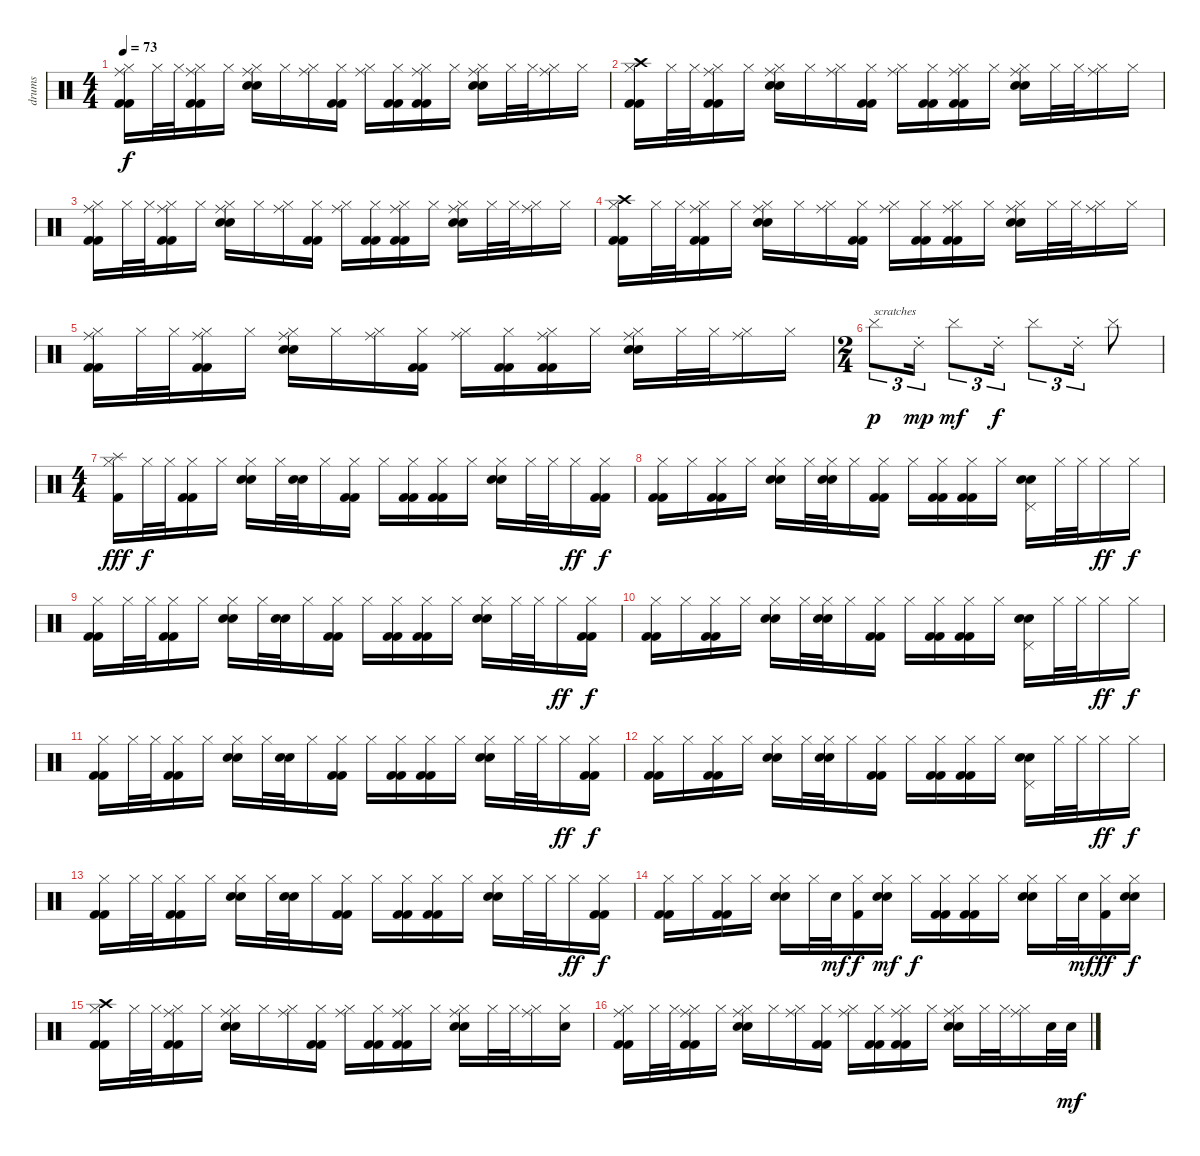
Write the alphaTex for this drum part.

\track ("drums" "drums") {instrument percussion}
\staff {score}
\articulation defaults
\ts (4 4)
\tempo 73
\clef neutral
\ks c
("Hi-Hat (closed)" "Ride (middle)" "Kick (hit) 2" "Kick (hit) 2").16{dy f} "Hi-Hat (closed)".32 "Hi-Hat (closed)".32 ("Hi-Hat (closed)" "Ride (middle)" "Kick (hit) 2" "Kick (hit) 2").16 "Hi-Hat (closed)".16 ("Hi-Hat (closed)" "Ride (middle)" "Electric Snare (hit)" "Electric Snare (hit)").16 "Hi-Hat (closed)".16 ("Hi-Hat (closed)" "Ride (middle)").16 ("Hi-Hat (closed)" "Kick (hit) 2" "Kick (hit) 2").16 ("Hi-Hat (closed)" "Ride (middle)").16 ("Hi-Hat (closed)" "Kick (hit) 2" "Kick (hit) 2").16 ("Hi-Hat (closed)" "Ride (middle)" "Kick (hit) 2" "Kick (hit) 2").16 "Hi-Hat (closed)".16 ("Hi-Hat (closed)" "Ride (middle)" "Electric Snare (hit)" "Electric Snare (hit)").16 "Hi-Hat (closed)".32 "Hi-Hat (closed)".32 ("Hi-Hat (closed)" "Ride (middle)").16 "Hi-Hat (closed)".16 |
("Hi-Hat (closed)" "Crash high (hit)" "Kick (hit) 2" "Kick (hit) 2").16 "Hi-Hat (closed)".32 "Hi-Hat (closed)".32 ("Hi-Hat (closed)" "Ride (middle)" "Kick (hit) 2" "Kick (hit) 2").16 "Hi-Hat (closed)".16 ("Hi-Hat (closed)" "Ride (middle)" "Electric Snare (hit)" "Electric Snare (hit)").16 "Hi-Hat (closed)".16 ("Hi-Hat (closed)" "Ride (middle)").16 ("Hi-Hat (closed)" "Kick (hit) 2" "Kick (hit) 2").16 ("Hi-Hat (closed)" "Ride (middle)").16 ("Hi-Hat (closed)" "Kick (hit) 2" "Kick (hit) 2").16 ("Hi-Hat (closed)" "Ride (middle)" "Kick (hit) 2" "Kick (hit) 2").16 "Hi-Hat (closed)".16 ("Hi-Hat (closed)" "Ride (middle)" "Electric Snare (hit)" "Electric Snare (hit)").16 "Hi-Hat (closed)".32 "Hi-Hat (closed)".32 ("Hi-Hat (closed)" "Ride (middle)").16 "Hi-Hat (closed)".16 |
("Hi-Hat (closed)" "Ride (middle)" "Kick (hit) 2" "Kick (hit) 2").16 "Hi-Hat (closed)".32 "Hi-Hat (closed)".32 ("Hi-Hat (closed)" "Ride (middle)" "Kick (hit) 2" "Kick (hit) 2").16 "Hi-Hat (closed)".16 ("Hi-Hat (closed)" "Ride (middle)" "Electric Snare (hit)" "Electric Snare (hit)").16 "Hi-Hat (closed)".16 ("Hi-Hat (closed)" "Ride (middle)").16 ("Hi-Hat (closed)" "Kick (hit) 2" "Kick (hit) 2").16 ("Hi-Hat (closed)" "Ride (middle)").16 ("Hi-Hat (closed)" "Kick (hit) 2" "Kick (hit) 2").16 ("Hi-Hat (closed)" "Ride (middle)" "Kick (hit) 2" "Kick (hit) 2").16 "Hi-Hat (closed)".16 ("Hi-Hat (closed)" "Ride (middle)" "Electric Snare (hit)" "Electric Snare (hit)").16 "Hi-Hat (closed)".32 "Hi-Hat (closed)".32 ("Hi-Hat (closed)" "Ride (middle)").16 "Hi-Hat (closed)".16 |
("Hi-Hat (closed)" "Crash high (hit)" "Kick (hit) 2" "Kick (hit) 2").16 "Hi-Hat (closed)".32 "Hi-Hat (closed)".32 ("Hi-Hat (closed)" "Ride (middle)" "Kick (hit) 2" "Kick (hit) 2").16 "Hi-Hat (closed)".16 ("Hi-Hat (closed)" "Ride (middle)" "Electric Snare (hit)" "Electric Snare (hit)").16 "Hi-Hat (closed)".16 ("Hi-Hat (closed)" "Ride (middle)").16 ("Hi-Hat (closed)" "Kick (hit) 2" "Kick (hit) 2").16 ("Hi-Hat (closed)" "Ride (middle)").16 ("Hi-Hat (closed)" "Kick (hit) 2" "Kick (hit) 2").16 ("Hi-Hat (closed)" "Ride (middle)" "Kick (hit) 2" "Kick (hit) 2").16 "Hi-Hat (closed)".16 ("Hi-Hat (closed)" "Ride (middle)" "Electric Snare (hit)" "Electric Snare (hit)").16 "Hi-Hat (closed)".32 "Hi-Hat (closed)".32 ("Hi-Hat (closed)" "Ride (middle)").16 "Hi-Hat (closed)".16 |
("Hi-Hat (closed)" "Ride (middle)" "Kick (hit) 2" "Kick (hit) 2").16 "Hi-Hat (closed)".32 "Hi-Hat (closed)".32 ("Hi-Hat (closed)" "Ride (middle)" "Kick (hit) 2" "Kick (hit) 2").16 "Hi-Hat (closed)".16 ("Hi-Hat (closed)" "Ride (middle)" "Electric Snare (hit)" "Electric Snare (hit)").16 "Hi-Hat (closed)".16 ("Hi-Hat (closed)" "Ride (middle)").16 ("Hi-Hat (closed)" "Kick (hit) 2" "Kick (hit) 2").16 ("Hi-Hat (closed)" "Ride (middle)").16 ("Hi-Hat (closed)" "Kick (hit) 2" "Kick (hit) 2").16 ("Hi-Hat (closed)" "Ride (middle)" "Kick (hit) 2" "Kick (hit) 2").16 "Hi-Hat (closed)".16 ("Hi-Hat (closed)" "Ride (middle)" "Electric Snare (hit)" "Electric Snare (hit)").16 "Hi-Hat (closed)".32 "Hi-Hat (closed)".32 ("Hi-Hat (closed)" "Ride (middle)").16 "Hi-Hat (closed)".16 |
\ts (2 4)
"Cymbal (hit)".8{tu (3 2) txt "scratches" dy p} "Ride (choke) 2".16{tu (3 2) dy mp} "Cymbal (hit)".8{tu (3 2) dy mf} "Ride (choke) 2".16{tu (3 2) dy f} "Cymbal (hit)".8{tu (3 2)} "Ride (choke) 2".16{tu (3 2)} "Cymbal (hit)".8 |
\ts (4 4)
("Hi-Hat (closed)" "Kick (hit) 2" "Splash (hit)").16{dy fff} "Hi-Hat (closed)".32{dy f} "Hi-Hat (closed)".32 ("Hi-Hat (closed)" "Kick (hit) 2" "Kick (hit) 2").16 "Hi-Hat (closed)".16 ("Hi-Hat (closed)" "Electric Snare (hit)" "Electric Snare (hit)").16 "Hi-Hat (closed)".32 ("Electric Snare (hit)" "Electric Snare (hit)").32 "Hi-Hat (closed)".16 ("Hi-Hat (closed)" "Kick (hit) 2" "Kick (hit) 2").16 "Hi-Hat (closed)".16 ("Hi-Hat (closed)" "Kick (hit) 2" "Kick (hit) 2").16 ("Hi-Hat (closed)" "Kick (hit) 2" "Kick (hit) 2").16 "Hi-Hat (closed)".16 ("Hi-Hat (closed)" "Electric Snare (hit)" "Electric Snare (hit)").16 "Hi-Hat (closed)".32 "Hi-Hat (closed)".32 "Hi-Hat (closed)".16{dy ff} ("Hi-Hat (closed)" "Kick (hit) 2" "Kick (hit) 2").16{dy f} |
("Hi-Hat (closed)" "Kick (hit) 2" "Kick (hit) 2").16 "Hi-Hat (closed)".16 ("Hi-Hat (closed)" "Kick (hit) 2" "Kick (hit) 2").16 "Hi-Hat (closed)".16 ("Hi-Hat (closed)" "Electric Snare (hit)" "Electric Snare (hit)").16 "Hi-Hat (closed)".32 ("Hi-Hat (closed)" "Electric Snare (hit)" "Electric Snare (hit)").32 "Hi-Hat (closed)".16 ("Hi-Hat (closed)" "Kick (hit) 2" "Kick (hit) 2").16 "Hi-Hat (closed)".16 ("Hi-Hat (closed)" "Kick (hit) 2" "Kick (hit) 2").16 ("Hi-Hat (closed)" "Kick (hit) 2" "Kick (hit) 2").16 "Hi-Hat (closed)".16 ("Pedal Hi-Hat (hit)" "Electric Snare (hit)" "Electric Snare (hit)").16 "Hi-Hat (closed)".32 "Hi-Hat (closed)".32 "Hi-Hat (closed)".16{dy ff} "Hi-Hat (closed)".16{dy f} |
("Hi-Hat (closed)" "Kick (hit) 2" "Kick (hit) 2").16 "Hi-Hat (closed)".32 "Hi-Hat (closed)".32 ("Hi-Hat (closed)" "Kick (hit) 2" "Kick (hit) 2").16 "Hi-Hat (closed)".16 ("Hi-Hat (closed)" "Electric Snare (hit)" "Electric Snare (hit)").16 "Hi-Hat (closed)".32 ("Electric Snare (hit)" "Electric Snare (hit)").32 "Hi-Hat (closed)".16 ("Hi-Hat (closed)" "Kick (hit) 2" "Kick (hit) 2").16 "Hi-Hat (closed)".16 ("Hi-Hat (closed)" "Kick (hit) 2" "Kick (hit) 2").16 ("Hi-Hat (closed)" "Kick (hit) 2" "Kick (hit) 2").16 "Hi-Hat (closed)".16 ("Hi-Hat (closed)" "Electric Snare (hit)" "Electric Snare (hit)").16 "Hi-Hat (closed)".32 "Hi-Hat (closed)".32 "Hi-Hat (closed)".16{dy ff} ("Hi-Hat (closed)" "Kick (hit) 2" "Kick (hit) 2").16{dy f} |
("Hi-Hat (closed)" "Kick (hit) 2" "Kick (hit) 2").16 "Hi-Hat (closed)".16 ("Hi-Hat (closed)" "Kick (hit) 2" "Kick (hit) 2").16 "Hi-Hat (closed)".16 ("Hi-Hat (closed)" "Electric Snare (hit)" "Electric Snare (hit)").16 "Hi-Hat (closed)".32 ("Hi-Hat (closed)" "Electric Snare (hit)" "Electric Snare (hit)").32 "Hi-Hat (closed)".16 ("Hi-Hat (closed)" "Kick (hit) 2" "Kick (hit) 2").16 "Hi-Hat (closed)".16 ("Hi-Hat (closed)" "Kick (hit) 2" "Kick (hit) 2").16 ("Hi-Hat (closed)" "Kick (hit) 2" "Kick (hit) 2").16 "Hi-Hat (closed)".16 ("Pedal Hi-Hat (hit)" "Electric Snare (hit)" "Electric Snare (hit)").16 "Hi-Hat (closed)".32 "Hi-Hat (closed)".32 "Hi-Hat (closed)".16{dy ff} "Hi-Hat (closed)".16{dy f} |
("Hi-Hat (closed)" "Kick (hit) 2" "Kick (hit) 2").16 "Hi-Hat (closed)".32 "Hi-Hat (closed)".32 ("Hi-Hat (closed)" "Kick (hit) 2" "Kick (hit) 2").16 "Hi-Hat (closed)".16 ("Hi-Hat (closed)" "Electric Snare (hit)" "Electric Snare (hit)").16 "Hi-Hat (closed)".32 ("Electric Snare (hit)" "Electric Snare (hit)").32 "Hi-Hat (closed)".16 ("Hi-Hat (closed)" "Kick (hit) 2" "Kick (hit) 2").16 "Hi-Hat (closed)".16 ("Hi-Hat (closed)" "Kick (hit) 2" "Kick (hit) 2").16 ("Hi-Hat (closed)" "Kick (hit) 2" "Kick (hit) 2").16 "Hi-Hat (closed)".16 ("Hi-Hat (closed)" "Electric Snare (hit)" "Electric Snare (hit)").16 "Hi-Hat (closed)".32 "Hi-Hat (closed)".32 "Hi-Hat (closed)".16{dy ff} ("Hi-Hat (closed)" "Kick (hit) 2" "Kick (hit) 2").16{dy f} |
("Hi-Hat (closed)" "Kick (hit) 2" "Kick (hit) 2").16 "Hi-Hat (closed)".16 ("Hi-Hat (closed)" "Kick (hit) 2" "Kick (hit) 2").16 "Hi-Hat (closed)".16 ("Hi-Hat (closed)" "Electric Snare (hit)" "Electric Snare (hit)").16 "Hi-Hat (closed)".32 ("Hi-Hat (closed)" "Electric Snare (hit)" "Electric Snare (hit)").32 "Hi-Hat (closed)".16 ("Hi-Hat (closed)" "Kick (hit) 2" "Kick (hit) 2").16 "Hi-Hat (closed)".16 ("Hi-Hat (closed)" "Kick (hit) 2" "Kick (hit) 2").16 ("Hi-Hat (closed)" "Kick (hit) 2" "Kick (hit) 2").16 "Hi-Hat (closed)".16 ("Pedal Hi-Hat (hit)" "Electric Snare (hit)" "Electric Snare (hit)").16 "Hi-Hat (closed)".32 "Hi-Hat (closed)".32 "Hi-Hat (closed)".16{dy ff} "Hi-Hat (closed)".16{dy f} |
("Hi-Hat (closed)" "Kick (hit) 2" "Kick (hit) 2").16 "Hi-Hat (closed)".32 "Hi-Hat (closed)".32 ("Hi-Hat (closed)" "Kick (hit) 2" "Kick (hit) 2").16 "Hi-Hat (closed)".16 ("Hi-Hat (closed)" "Electric Snare (hit)" "Electric Snare (hit)").16 "Hi-Hat (closed)".32 ("Electric Snare (hit)" "Electric Snare (hit)").32 "Hi-Hat (closed)".16 ("Hi-Hat (closed)" "Kick (hit) 2" "Kick (hit) 2").16 "Hi-Hat (closed)".16 ("Hi-Hat (closed)" "Kick (hit) 2" "Kick (hit) 2").16 ("Hi-Hat (closed)" "Kick (hit) 2" "Kick (hit) 2").16 "Hi-Hat (closed)".16 ("Hi-Hat (closed)" "Electric Snare (hit)" "Electric Snare (hit)").16 "Hi-Hat (closed)".32 "Hi-Hat (closed)".32 "Hi-Hat (closed)".16{dy ff} ("Hi-Hat (closed)" "Kick (hit) 2" "Kick (hit) 2").16{dy f} |
("Hi-Hat (closed)" "Kick (hit) 2" "Kick (hit) 2").16 "Hi-Hat (closed)".16 ("Hi-Hat (closed)" "Kick (hit) 2" "Kick (hit) 2").16 "Hi-Hat (closed)".16 ("Hi-Hat (closed)" "Electric Snare (hit)" "Electric Snare (hit)").16 "Hi-Hat (closed)".32 "Electric Snare (hit)".32{dy mf} ("Hi-Hat (closed)" "Kick (hit) 2").16{dy f} ("Hi-Hat (closed)" "Electric Snare (hit)" "Electric Snare (hit)").16{dy mf} "Hi-Hat (closed)".16{dy f} ("Hi-Hat (closed)" "Kick (hit) 2" "Kick (hit) 2").16 ("Hi-Hat (closed)" "Kick (hit) 2" "Kick (hit) 2").16 "Hi-Hat (closed)".16 ("Hi-Hat (closed)" "Electric Snare (hit)" "Electric Snare (hit)").16 "Hi-Hat (closed)".32 "Electric Snare (hit)".32{dy mf} ("Hi-Hat (closed)" "Kick (hit) 2").16{dy ff} ("Hi-Hat (closed)" "Electric Snare (hit)" "Electric Snare (hit)").16{dy f} |
("Hi-Hat (closed)" "Crash high (hit)" "Kick (hit) 2" "Kick (hit) 2").16 "Hi-Hat (closed)".32 "Hi-Hat (closed)".32 ("Hi-Hat (closed)" "Ride (middle)" "Kick (hit) 2" "Kick (hit) 2").16 "Hi-Hat (closed)".16 ("Hi-Hat (closed)" "Ride (middle)" "Electric Snare (hit)" "Electric Snare (hit)").16 "Hi-Hat (closed)".16 ("Hi-Hat (closed)" "Ride (middle)").16 ("Hi-Hat (closed)" "Kick (hit) 2" "Kick (hit) 2").16 ("Hi-Hat (closed)" "Ride (middle)").16 ("Hi-Hat (closed)" "Kick (hit) 2" "Kick (hit) 2").16 ("Hi-Hat (closed)" "Ride (middle)" "Kick (hit) 2" "Kick (hit) 2").16 "Hi-Hat (closed)".16 ("Hi-Hat (closed)" "Ride (middle)" "Electric Snare (hit)" "Electric Snare (hit)").16 "Hi-Hat (closed)".32 "Hi-Hat (closed)".32 ("Hi-Hat (closed)" "Ride (middle)").16 ("Hi-Hat (closed)" "Electric Snare (hit)").16 |
("Hi-Hat (closed)" "Ride (middle)" "Kick (hit) 2" "Kick (hit) 2").16 "Hi-Hat (closed)".32 "Hi-Hat (closed)".32 ("Hi-Hat (closed)" "Ride (middle)" "Kick (hit) 2" "Kick (hit) 2").16 "Hi-Hat (closed)".16 ("Hi-Hat (closed)" "Ride (middle)" "Electric Snare (hit)" "Electric Snare (hit)").16 "Hi-Hat (closed)".16 ("Hi-Hat (closed)" "Ride (middle)").16 ("Hi-Hat (closed)" "Kick (hit) 2" "Kick (hit) 2").16 ("Hi-Hat (closed)" "Ride (middle)").16 ("Hi-Hat (closed)" "Kick (hit) 2" "Kick (hit) 2").16 ("Hi-Hat (closed)" "Ride (middle)" "Kick (hit) 2" "Kick (hit) 2").16 "Hi-Hat (closed)".16 ("Hi-Hat (closed)" "Ride (middle)" "Electric Snare (hit)" "Electric Snare (hit)").16 "Hi-Hat (closed)".32 "Hi-Hat (closed)".32 ("Hi-Hat (closed)" "Ride (middle)").16 "Electric Snare (hit)".32 "Electric Snare (hit)".32{dy mf}
